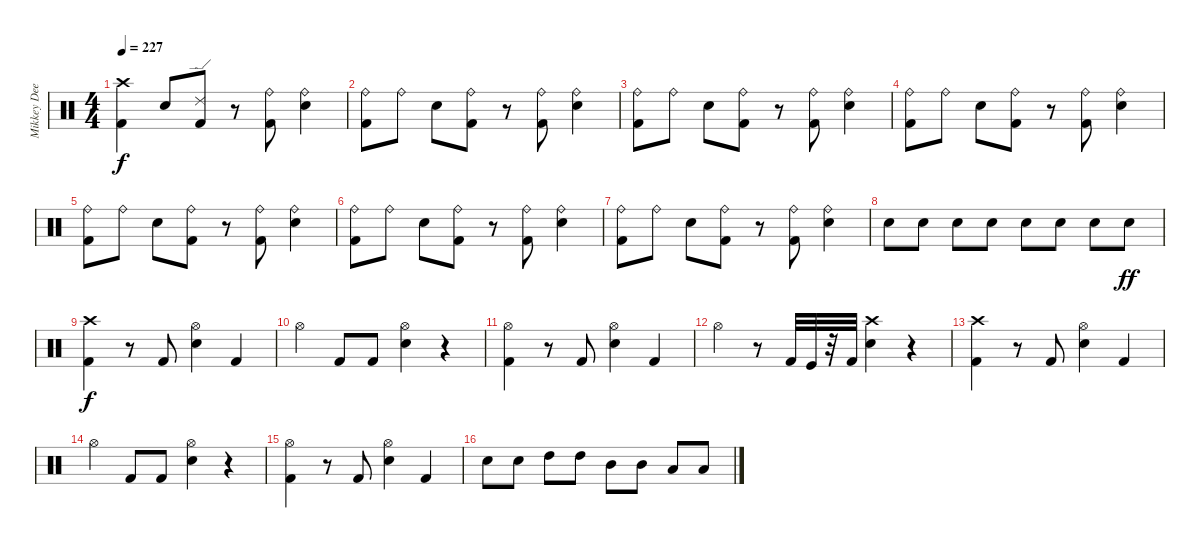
\track ("Mikkey Dee" "Mikkey Dee") {instrument percussion}
\staff {score}
\articulation defaults
\ts (4 4)
\tempo 227
\clef neutral
\ks c
("Kick (hit) 2" "Crash high (hit)").4{dy f} "Electric Snare (hit)".8 ("Kick (hit) 2" "Ride (edge) 2").8 r.8 ("Kick (hit) 2" "Ride (bell)").8 ("Ride (bell)" "Electric Snare (hit)").4 |
("Kick (hit) 2" "Ride (bell)").8 "Ride (bell)".8 "Electric Snare (hit)".8 ("Ride (bell)" "Kick (hit) 2").8 r.8 ("Kick (hit) 2" "Ride (bell)").8 ("Ride (bell)" "Electric Snare (hit)").4 |
("Ride (bell)" "Kick (hit) 2").8 "Ride (bell)".8 "Electric Snare (hit)".8 ("Ride (bell)" "Kick (hit) 2").8 r.8 ("Kick (hit) 2" "Ride (bell)").8 ("Ride (bell)" "Electric Snare (hit)").4 |
("Ride (bell)" "Kick (hit) 2").8 "Ride (bell)".8 "Electric Snare (hit)".8 ("Ride (bell)" "Kick (hit) 2").8 r.8 ("Kick (hit) 2" "Ride (bell)").8 ("Electric Snare (hit)" "Ride (bell)").4 |
("Ride (bell)" "Kick (hit) 2").8 "Ride (bell)".8 "Electric Snare (hit)".8 ("Ride (bell)" "Kick (hit) 2").8 r.8 ("Kick (hit) 2" "Ride (bell)").8 ("Electric Snare (hit)" "Ride (bell)").4 |
("Kick (hit) 2" "Ride (bell)").8 "Ride (bell)".8 "Electric Snare (hit)".8 ("Kick (hit) 2" "Ride (bell)").8 r.8 ("Kick (hit) 2" "Ride (bell)").8 ("Electric Snare (hit)" "Ride (bell)").4 |
("Ride (bell)" "Kick (hit) 2").8 "Ride (bell)".8 "Electric Snare (hit)".8 ("Ride (bell)" "Kick (hit) 2").8 r.8 ("Ride (bell)" "Kick (hit) 2").8 ("Ride (bell)" "Electric Snare (hit)").4 |
"Electric Snare (hit)".8 "Electric Snare (hit)".8 "Electric Snare (hit)".8 "Electric Snare (hit)".8 "Electric Snare (hit)".8 "Electric Snare (hit)".8 "Electric Snare (hit)".8 "Electric Snare (hit)".8{dy ff} |
("Kick (hit) 2" "Crash high (hit)").4{dy f} r.8 "Kick (hit) 2".8 ("Electric Snare (hit)" "Hi-Hat (open)").4 "Kick (hit) 2".4 |
"Hi-Hat (open)".4 "Kick (hit) 2".8 "Kick (hit) 2".8 ("Electric Snare (hit)" "Hi-Hat (open)").4 r.4 |
("Hi-Hat (open)" "Kick (hit) 2").4 r.8 "Kick (hit) 2".8 ("Electric Snare (hit)" "Hi-Hat (open)").4 "Kick (hit) 2".4 |
"Hi-Hat (open)".4 r.8 "Kick (hit) 2".32 "Kick (hit)".32 r.32 "Kick (hit) 2".32 ("Crash high (hit)" "Electric Snare (hit)").4 r.4 |
("Kick (hit) 2" "Crash high (hit)").4 r.8 "Kick (hit) 2".8 ("Hi-Hat (open)" "Electric Snare (hit)").4 "Kick (hit) 2".4 |
"Hi-Hat (open)".4 "Kick (hit) 2".8 "Kick (hit) 2".8 ("Electric Snare (hit)" "Hi-Hat (open)").4 r.4 |
("Kick (hit) 2" "Hi-Hat (open)").4 r.8 "Kick (hit) 2".8 ("Electric Snare (hit)" "Hi-Hat (open)").4 "Kick (hit) 2".4 |
"Electric Snare (hit)".8 "Electric Snare (hit)".8 "High Tom (hit)".8 "High Tom (hit)".8 "Mid Tom (hit)".8 "Mid Tom (hit)".8 "Low Tom (hit)".8 "Low Tom (hit)".8
